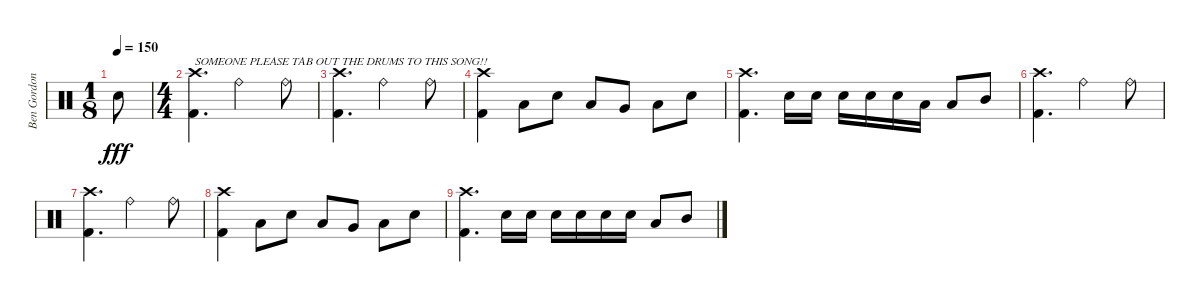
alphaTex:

\track ("Ben Gordon" "Ben Gordon") {instrument percussion}
\staff {score}
\articulation defaults
\ts (1 8)
\tempo 150
\clef neutral
\ks c "Electric Snare (hit)".8{dy fff}
|
\ts (4 4)
("Crash high (hit)" "Kick (hit) 2").4{d txt "SOMEONE PLEASE TAB OUT THE DRUMS TO THIS SONG!!"} "Ride (bell)".2 "Ride (bell)".8 |
("Crash high (hit)" "Kick (hit) 2").4{d} "Ride (bell)".2 "Ride (bell)".8 |
("Crash high (hit)" "Kick (hit) 2").4 "Low Tom (hit)".8 "Electric Snare (hit)".8 "Low Tom (hit)".8 "Very Low Tom (hit)".8 "Low Floor Tom (hit)".8 "Electric Snare (hit)".8 |
("Crash high (hit)" "Kick (hit) 2").4{d} "Electric Snare (hit)".16 "Electric Snare (hit)".16 "Electric Snare (hit)".16 "Electric Snare (hit)".16 "Electric Snare (hit)".16 "Low Tom (hit)".16 "Low Tom (hit)".8 "Mid Tom (hit)".8 |
("Crash high (hit)" "Kick (hit) 2").4{d} "Ride (bell)".2 "Ride (bell)".8 |
("Crash high (hit)" "Kick (hit) 2").4{d} "Ride (bell)".2 "Ride (bell)".8 |
("Crash high (hit)" "Kick (hit) 2").4 "Low Tom (hit)".8 "Electric Snare (hit)".8 "Low Tom (hit)".8 "Very Low Tom (hit)".8 "Low Floor Tom (hit)".8 "Electric Snare (hit)".8 |
("Crash high (hit)" "Kick (hit) 2").4{d} "Electric Snare (hit)".16 "Electric Snare (hit)".16 "Electric Snare (hit)".16 "Electric Snare (hit)".16 "Electric Snare (hit)".16 "Electric Snare (hit)".16 "Low Tom (hit)".8 "Mid Tom (hit)".8
